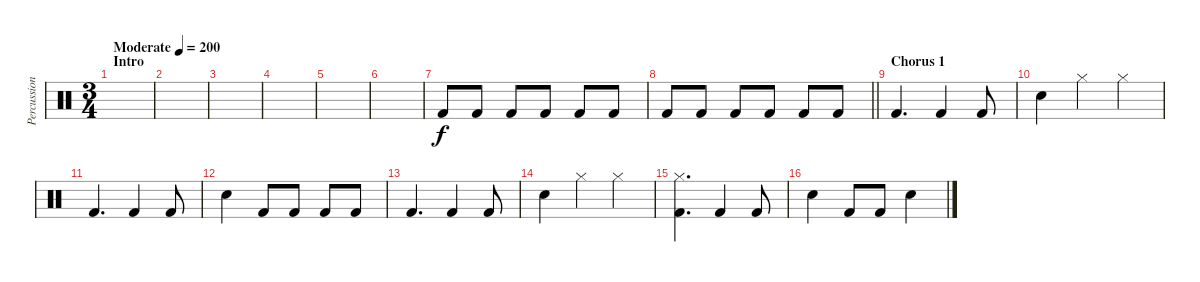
\track ("Percussion" "Percussion") {instrument percussion}
\staff {score}
\articulation defaults
\ts (3 4)
\section ("" "Intro")
\tempo (200 "Moderate")
\clef neutral
\ks c
|
|
|
|
|
|
"Kick (hit) 2".8 "Kick (hit) 2".8 "Kick (hit) 2".8 "Kick (hit) 2".8 "Kick (hit) 2".8 "Kick (hit) 2".8 |
\barLineRight lightlight "Kick (hit) 2".8 "Kick (hit) 2".8 "Kick (hit) 2".8 "Kick (hit) 2".8 "Kick (hit) 2".8 "Kick (hit) 2".8
|
\section ("" "Chorus 1")
"Kick (hit) 2".4{d} "Kick (hit) 2".4 "Kick (hit) 2".8 |
"Snare (hit) 2".4 "Hi-Hat (closed)".4 "Hi-Hat (closed)".4 |
"Kick (hit) 2".4{d} "Kick (hit) 2".4 "Kick (hit) 2".8 |
"Snare (hit) 2".4 "Kick (hit) 2".8 "Kick (hit) 2".8 "Kick (hit) 2".8 "Kick (hit) 2".8 |
"Kick (hit) 2".4{d} "Kick (hit) 2".4 "Kick (hit) 2".8 |
"Snare (hit) 2".4 "Hi-Hat (closed)".4 "Hi-Hat (closed)".4 |
("Hi-Hat (closed)" "Kick (hit) 2").4{d} "Kick (hit) 2".4 "Kick (hit) 2".8 |
"Snare (hit) 2".4 "Kick (hit) 2".8 "Kick (hit) 2".8 "Snare (hit) 2".4
